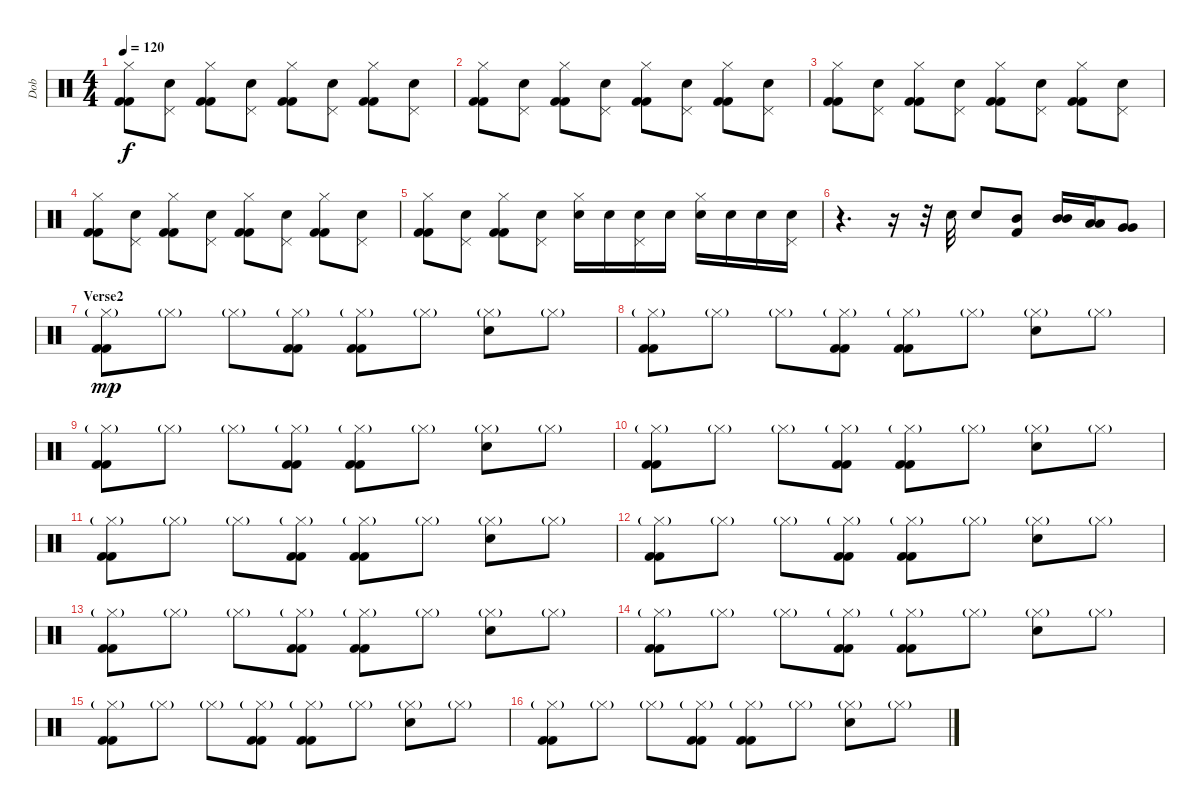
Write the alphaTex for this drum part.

\track ("Dob" "Dob") {instrument percussion}
\staff {score}
\articulation defaults
\ts (4 4)
\tempo 120
\clef neutral
\ks c
("Hi-Hat (closed)" "Kick (hit) 2" "Kick (hit) 2").8{dy f} ("Pedal Hi-Hat (hit)" "Snare (hit) 2").8 ("Hi-Hat (closed)" "Kick (hit) 2" "Kick (hit) 2").8 ("Pedal Hi-Hat (hit)" "Snare (hit) 2").8 ("Hi-Hat (closed)" "Kick (hit) 2" "Kick (hit) 2").8 ("Pedal Hi-Hat (hit)" "Snare (hit) 2").8 ("Hi-Hat (closed)" "Kick (hit) 2" "Kick (hit) 2").8 ("Pedal Hi-Hat (hit)" "Snare (hit) 2").8 |
("Hi-Hat (closed)" "Kick (hit) 2" "Kick (hit) 2").8 ("Pedal Hi-Hat (hit)" "Snare (hit) 2").8 ("Hi-Hat (closed)" "Kick (hit) 2" "Kick (hit) 2").8 ("Pedal Hi-Hat (hit)" "Snare (hit) 2").8 ("Hi-Hat (closed)" "Kick (hit) 2" "Kick (hit) 2").8 ("Pedal Hi-Hat (hit)" "Snare (hit) 2").8 ("Hi-Hat (closed)" "Kick (hit) 2" "Kick (hit) 2").8 ("Pedal Hi-Hat (hit)" "Snare (hit) 2").8 |
("Hi-Hat (closed)" "Kick (hit) 2" "Kick (hit) 2").8 ("Pedal Hi-Hat (hit)" "Snare (hit) 2").8 ("Hi-Hat (closed)" "Kick (hit) 2" "Kick (hit) 2").8 ("Pedal Hi-Hat (hit)" "Snare (hit) 2").8 ("Hi-Hat (closed)" "Kick (hit) 2" "Kick (hit) 2").8 ("Pedal Hi-Hat (hit)" "Snare (hit) 2").8 ("Hi-Hat (closed)" "Kick (hit) 2" "Kick (hit) 2").8 ("Pedal Hi-Hat (hit)" "Snare (hit) 2").8 |
("Hi-Hat (closed)" "Kick (hit) 2" "Kick (hit) 2").8 ("Pedal Hi-Hat (hit)" "Snare (hit) 2").8 ("Hi-Hat (closed)" "Kick (hit) 2" "Kick (hit) 2").8 ("Pedal Hi-Hat (hit)" "Snare (hit) 2").8 ("Hi-Hat (closed)" "Kick (hit) 2" "Kick (hit) 2").8 ("Pedal Hi-Hat (hit)" "Snare (hit) 2").8 ("Hi-Hat (closed)" "Kick (hit) 2" "Kick (hit) 2").8 ("Pedal Hi-Hat (hit)" "Snare (hit) 2").8 |
("Hi-Hat (closed)" "Kick (hit) 2" "Kick (hit) 2").8 ("Pedal Hi-Hat (hit)" "Snare (hit) 2").8 ("Hi-Hat (closed)" "Kick (hit) 2" "Kick (hit) 2").8 ("Pedal Hi-Hat (hit)" "Snare (hit) 2").8 ("Hi-Hat (closed)" "Snare (hit) 2").16 "Snare (hit) 2".16 ("Pedal Hi-Hat (hit)" "Snare (hit) 2").16 "Snare (hit) 2".16 ("Hi-Hat (closed)" "Snare (hit) 2").16 "Snare (hit) 2".16 "Snare (hit) 2".16 ("Pedal Hi-Hat (hit)" "Snare (hit) 2").16 |
r.4{d} r.16 r.32 "Snare (hit) 2".32 "Snare (hit) 2".8 ("Kick (hit) 2" "Mid Tom (hit)").8 ("Mid Tom (hit)" "Mid Tom (hit)").16 ("Low Tom (hit)" "Low Tom (hit)").16 ("Very Low Tom (hit)" "Very Low Tom (hit)").8 |
\section ("" "Verse2")
("Hi-Hat (closed)"{g} "Kick (hit) 2" "Kick (hit) 2").8{dy mp} "Hi-Hat (closed)"{g}.8 "Hi-Hat (closed)"{g}.8 ("Hi-Hat (closed)"{g} "Kick (hit) 2" "Kick (hit) 2").8 ("Hi-Hat (closed)"{g} "Kick (hit) 2" "Kick (hit) 2").8 "Hi-Hat (closed)"{g}.8 ("Hi-Hat (closed)"{g} "Snare (hit) 2").8 "Hi-Hat (closed)"{g}.8 |
("Hi-Hat (closed)"{g} "Kick (hit) 2" "Kick (hit) 2").8 "Hi-Hat (closed)"{g}.8 "Hi-Hat (closed)"{g}.8 ("Hi-Hat (closed)"{g} "Kick (hit) 2" "Kick (hit) 2").8 ("Hi-Hat (closed)"{g} "Kick (hit) 2" "Kick (hit) 2").8 "Hi-Hat (closed)"{g}.8 ("Hi-Hat (closed)"{g} "Snare (hit) 2").8 "Hi-Hat (closed)"{g}.8 |
("Hi-Hat (closed)"{g} "Kick (hit) 2" "Kick (hit) 2").8 "Hi-Hat (closed)"{g}.8 "Hi-Hat (closed)"{g}.8 ("Hi-Hat (closed)"{g} "Kick (hit) 2" "Kick (hit) 2").8 ("Hi-Hat (closed)"{g} "Kick (hit) 2" "Kick (hit) 2").8 "Hi-Hat (closed)"{g}.8 ("Hi-Hat (closed)"{g} "Snare (hit) 2").8 "Hi-Hat (closed)"{g}.8 |
("Hi-Hat (closed)"{g} "Kick (hit) 2" "Kick (hit) 2").8 "Hi-Hat (closed)"{g}.8 "Hi-Hat (closed)"{g}.8 ("Hi-Hat (closed)"{g} "Kick (hit) 2" "Kick (hit) 2").8 ("Hi-Hat (closed)"{g} "Kick (hit) 2" "Kick (hit) 2").8 "Hi-Hat (closed)"{g}.8 ("Hi-Hat (closed)"{g} "Snare (hit) 2").8 "Hi-Hat (closed)"{g}.8 |
("Hi-Hat (closed)"{g} "Kick (hit) 2" "Kick (hit) 2").8 "Hi-Hat (closed)"{g}.8 "Hi-Hat (closed)"{g}.8 ("Hi-Hat (closed)"{g} "Kick (hit) 2" "Kick (hit) 2").8 ("Hi-Hat (closed)"{g} "Kick (hit) 2" "Kick (hit) 2").8 "Hi-Hat (closed)"{g}.8 ("Hi-Hat (closed)"{g} "Snare (hit) 2").8 "Hi-Hat (closed)"{g}.8 |
("Hi-Hat (closed)"{g} "Kick (hit) 2" "Kick (hit) 2").8 "Hi-Hat (closed)"{g}.8 "Hi-Hat (closed)"{g}.8 ("Hi-Hat (closed)"{g} "Kick (hit) 2" "Kick (hit) 2").8 ("Hi-Hat (closed)"{g} "Kick (hit) 2" "Kick (hit) 2").8 "Hi-Hat (closed)"{g}.8 ("Hi-Hat (closed)"{g} "Snare (hit) 2").8 "Hi-Hat (closed)"{g}.8 |
("Hi-Hat (closed)"{g} "Kick (hit) 2" "Kick (hit) 2").8 "Hi-Hat (closed)"{g}.8 "Hi-Hat (closed)"{g}.8 ("Hi-Hat (closed)"{g} "Kick (hit) 2" "Kick (hit) 2").8 ("Hi-Hat (closed)"{g} "Kick (hit) 2" "Kick (hit) 2").8 "Hi-Hat (closed)"{g}.8 ("Hi-Hat (closed)"{g} "Snare (hit) 2").8 "Hi-Hat (closed)"{g}.8 |
("Hi-Hat (closed)"{g} "Kick (hit) 2" "Kick (hit) 2").8 "Hi-Hat (closed)"{g}.8 "Hi-Hat (closed)"{g}.8 ("Hi-Hat (closed)"{g} "Kick (hit) 2" "Kick (hit) 2").8 ("Hi-Hat (closed)"{g} "Kick (hit) 2" "Kick (hit) 2").8 "Hi-Hat (closed)"{g}.8 ("Hi-Hat (closed)"{g} "Snare (hit) 2").8 "Hi-Hat (closed)"{g}.8 |
("Hi-Hat (closed)"{g} "Kick (hit) 2" "Kick (hit) 2").8 "Hi-Hat (closed)"{g}.8 "Hi-Hat (closed)"{g}.8 ("Hi-Hat (closed)"{g} "Kick (hit) 2" "Kick (hit) 2").8 ("Hi-Hat (closed)"{g} "Kick (hit) 2" "Kick (hit) 2").8 "Hi-Hat (closed)"{g}.8 ("Hi-Hat (closed)"{g} "Snare (hit) 2").8 "Hi-Hat (closed)"{g}.8 |
("Hi-Hat (closed)"{g} "Kick (hit) 2" "Kick (hit) 2").8 "Hi-Hat (closed)"{g}.8 "Hi-Hat (closed)"{g}.8 ("Hi-Hat (closed)"{g} "Kick (hit) 2" "Kick (hit) 2").8 ("Hi-Hat (closed)"{g} "Kick (hit) 2" "Kick (hit) 2").8 "Hi-Hat (closed)"{g}.8 ("Hi-Hat (closed)"{g} "Snare (hit) 2").8 "Hi-Hat (closed)"{g}.8
